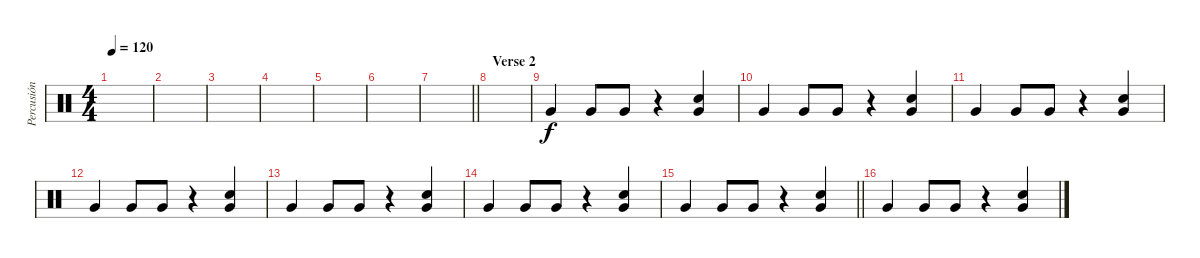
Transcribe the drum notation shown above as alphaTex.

\track ("Percusión" "Percusión") {instrument percussion}
\staff {score}
\articulation defaults
\ts (4 4)
\tempo 120
\clef neutral
\ks c
|
|
|
|
|
|
\barLineRight lightlight
|
\section ("" "Verse 2")
|
"Very Low Tom (hit)".4 "Very Low Tom (hit)".8 "Very Low Tom (hit)".8 r.4 ("Very Low Tom (hit)" "Electric Snare (hit)").4 |
"Very Low Tom (hit)".4 "Very Low Tom (hit)".8 "Very Low Tom (hit)".8 r.4 ("Very Low Tom (hit)" "Electric Snare (hit)").4 |
"Very Low Tom (hit)".4 "Very Low Tom (hit)".8 "Very Low Tom (hit)".8 r.4 ("Very Low Tom (hit)" "Electric Snare (hit)").4 |
"Very Low Tom (hit)".4 "Very Low Tom (hit)".8 "Very Low Tom (hit)".8 r.4 ("Very Low Tom (hit)" "Electric Snare (hit)").4 |
"Very Low Tom (hit)".4 "Very Low Tom (hit)".8 "Very Low Tom (hit)".8 r.4 ("Very Low Tom (hit)" "Electric Snare (hit)").4 |
"Very Low Tom (hit)".4 "Very Low Tom (hit)".8 "Very Low Tom (hit)".8 r.4 ("Very Low Tom (hit)" "Electric Snare (hit)").4 |
\barLineRight lightlight "Very Low Tom (hit)".4 "Very Low Tom (hit)".8 "Very Low Tom (hit)".8
r.4 ("Very Low Tom (hit)" "Electric Snare (hit)").4 |
"Very Low Tom (hit)".4 "Very Low Tom (hit)".8 "Very Low Tom (hit)".8 r.4 ("Very Low Tom (hit)" "Electric Snare (hit)").4
